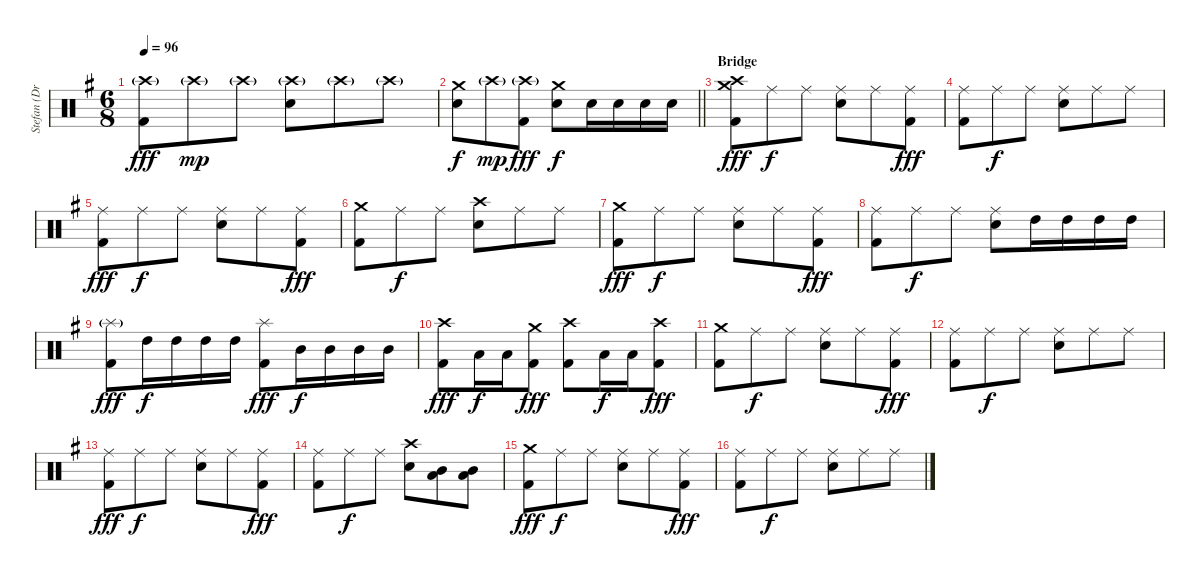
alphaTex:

\track ("Stefan (Drums)" "Stefan (Dr") {instrument percussion}
\staff {score}
\articulation defaults
\ts (6 8)
\tempo 96
\clef neutral
\ks g
("Crash high (hit)"{g} "Kick (hit) 2").8{dy fff} "Crash high (hit)"{g}.8{dy mp} "Crash high (hit)"{g}.8 ("Crash high (hit)"{g} "Snare (hit) 2").8 "Crash high (hit)"{g}.8 "Crash high (hit)"{g}.8 |
\barLineRight lightlight
("Crash medium (hit)" "Snare (hit) 2").8{dy f} "Crash high (hit)"{g}.8{dy mp} ("Crash high (hit)"{g} "Kick (hit) 2").8{dy fff} ("Crash medium (hit)" "Snare (hit) 2").8{dy f} "Snare (hit) 2".16 "Snare (hit) 2".16 "Snare (hit) 2".16 "Snare (hit) 2".16 |
\section ("" "Bridge")
("Crash medium (hit)" "Crash high (hit)" "Kick (hit) 2").8{dy fff} "Ride (middle)".8{dy f} "Ride (middle)".8 ("Ride (middle)" "Snare (hit) 2").8 "Ride (middle)".8 ("Ride (middle)" "Kick (hit) 2").8{dy fff} |
("Ride (middle)" "Kick (hit) 2").8 "Ride (middle)".8{dy f} "Ride (middle)".8 ("Ride (middle)" "Snare (hit) 2").8 "Ride (middle)".8 "Ride (middle)".8 |
("Ride (middle)" "Kick (hit) 2").8{dy fff} "Ride (middle)".8{dy f} "Ride (middle)".8 ("Ride (middle)" "Snare (hit) 2").8 "Ride (middle)".8 ("Ride (middle)" "Kick (hit) 2").8{dy fff} |
("Crash medium (hit)" "Kick (hit) 2").8 "Ride (middle)".8{dy f} "Ride (middle)".8 ("Crash high (hit)" "Snare (hit) 2").8 "Ride (middle)".8 "Ride (middle)".8 |
("Crash medium (hit)" "Kick (hit) 2").8{dy fff} "Ride (middle)".8{dy f} "Ride (middle)".8 ("Ride (middle)" "Snare (hit) 2").8 "Ride (middle)".8 ("Ride (middle)" "Kick (hit) 2").8{dy fff} |
("Ride (middle)" "Kick (hit) 2").8 "Ride (middle)".8{dy f} "Ride (middle)".8 ("Ride (middle)" "Snare (hit) 2").8 "High Tom (hit)".16 "High Tom (hit)".16 "High Tom (hit)".16 "High Tom (hit)".16 |
("Splash (hit)"{g} "Kick (hit) 2").8{dy fff} "High Tom (hit)".16{dy f} "High Tom (hit)".16 "High Tom (hit)".16 "High Tom (hit)".16 ("Splash (hit)" "Kick (hit) 2").8{dy fff} "Mid Tom (hit)".16{dy f} "Mid Tom (hit)".16 "Mid Tom (hit)".16 "Mid Tom (hit)".16 |
("Crash high (hit)" "Kick (hit) 2").8{dy fff} "Low Tom (hit)".16{dy f} "Low Tom (hit)".16 ("Crash medium (hit)" "Kick (hit) 2").8{dy fff} ("Crash high (hit)" "Kick (hit) 2").8 "Low Tom (hit)".16{dy f} "Low Tom (hit)".16 ("Crash high (hit)" "Kick (hit) 2").8{dy fff} |
("Crash medium (hit)" "Kick (hit) 2").8 "Ride (middle)".8{dy f} "Ride (middle)".8 ("Ride (middle)" "Snare (hit) 2").8 "Ride (middle)".8 ("Ride (middle)" "Kick (hit) 2").8{dy fff} |
("Ride (middle)" "Kick (hit) 2").8 "Ride (middle)".8{dy f} "Ride (middle)".8 ("Ride (middle)" "Snare (hit) 2").8 "Ride (middle)".8 "Ride (middle)".8 |
("Ride (middle)" "Kick (hit) 2").8{dy fff} "Ride (middle)".8{dy f} "Ride (middle)".8 ("Ride (middle)" "Snare (hit) 2").8 "Ride (middle)".8 ("Ride (middle)" "Kick (hit) 2").8{dy fff} |
("Ride (middle)" "Kick (hit) 2").8 "Ride (middle)".8{dy f} "Ride (middle)".8 ("Crash high (hit)" "Snare (hit) 2").8 ("Mid Tom (hit)" "Low Tom (hit)").8 ("Mid Tom (hit)" "Low Tom (hit)").8 |
("Crash medium (hit)" "Kick (hit) 2").8{dy fff} "Ride (middle)".8{dy f} "Ride (middle)".8 ("Ride (middle)" "Snare (hit) 2").8 "Ride (middle)".8 ("Ride (middle)" "Kick (hit) 2").8{dy fff} |
("Ride (middle)" "Kick (hit) 2").8 "Ride (middle)".8{dy f} "Ride (middle)".8 ("Ride (middle)" "Snare (hit) 2").8 "Ride (middle)".8 "Ride (middle)".8
